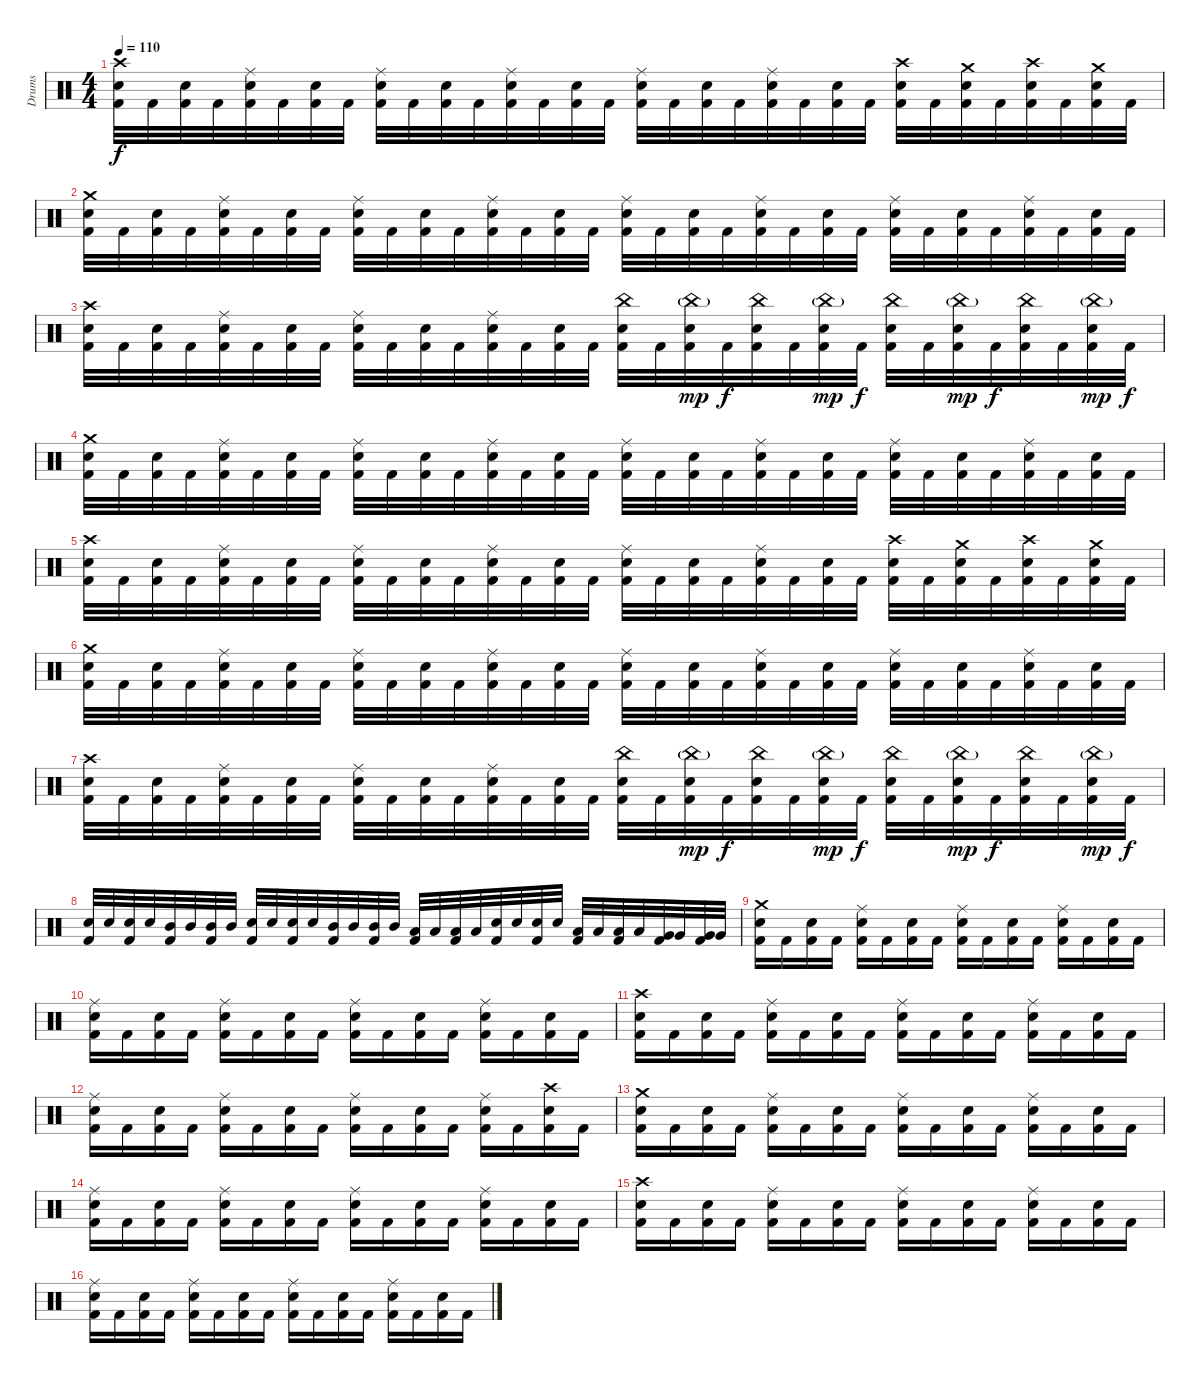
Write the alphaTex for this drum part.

\track ("Drums" "Drums") {instrument percussion}
\staff {score}
\articulation defaults
\ts (4 4)
\tempo 110
\clef neutral
\ks c
("Kick (hit) 2" "Snare (hit) 2" "Crash high (hit)").32{dy f} "Kick (hit) 2".32 ("Kick (hit) 2" "Snare (hit) 2").32 "Kick (hit) 2".32 ("Kick (hit) 2" "Snare (hit) 2" "Ride (middle)").32 "Kick (hit) 2".32 ("Kick (hit) 2" "Snare (hit) 2").32 "Kick (hit) 2".32 ("Kick (hit) 2" "Snare (hit) 2" "Ride (middle)").32 "Kick (hit) 2".32 ("Kick (hit) 2" "Snare (hit) 2").32 "Kick (hit) 2".32 ("Kick (hit) 2" "Snare (hit) 2" "Ride (middle)").32 "Kick (hit) 2".32 ("Kick (hit) 2" "Snare (hit) 2").32 "Kick (hit) 2".32 ("Kick (hit) 2" "Snare (hit) 2" "Ride (middle)").32 "Kick (hit) 2".32 ("Kick (hit) 2" "Snare (hit) 2").32 "Kick (hit) 2".32 ("Kick (hit) 2" "Snare (hit) 2" "Ride (middle)").32 "Kick (hit) 2".32 ("Kick (hit) 2" "Snare (hit) 2").32 "Kick (hit) 2".32 ("Kick (hit) 2" "Snare (hit) 2" "Crash high (hit)").32 "Kick (hit) 2".32 ("Kick (hit) 2" "Snare (hit) 2" "Crash medium (hit)").32 "Kick (hit) 2".32 ("Kick (hit) 2" "Snare (hit) 2" "Crash high (hit)").32 "Kick (hit) 2".32 ("Kick (hit) 2" "Snare (hit) 2" "Crash medium (hit)").32 "Kick (hit) 2".32 |
("Kick (hit) 2" "Snare (hit) 2" "Crash medium (hit)").32 "Kick (hit) 2".32 ("Kick (hit) 2" "Snare (hit) 2").32 "Kick (hit) 2".32 ("Kick (hit) 2" "Snare (hit) 2" "Ride (middle)").32 "Kick (hit) 2".32 ("Kick (hit) 2" "Snare (hit) 2").32 "Kick (hit) 2".32 ("Kick (hit) 2" "Snare (hit) 2" "Ride (middle)").32 "Kick (hit) 2".32 ("Kick (hit) 2" "Snare (hit) 2").32 "Kick (hit) 2".32 ("Kick (hit) 2" "Snare (hit) 2" "Ride (middle)").32 "Kick (hit) 2".32 ("Kick (hit) 2" "Snare (hit) 2").32 "Kick (hit) 2".32 ("Kick (hit) 2" "Snare (hit) 2" "Ride (middle)").32 "Kick (hit) 2".32 ("Kick (hit) 2" "Snare (hit) 2").32 "Kick (hit) 2".32 ("Kick (hit) 2" "Snare (hit) 2" "Ride (middle)").32 "Kick (hit) 2".32 ("Kick (hit) 2" "Snare (hit) 2").32 "Kick (hit) 2".32 ("Kick (hit) 2" "Snare (hit) 2" "Ride (middle)").32 "Kick (hit) 2".32 ("Kick (hit) 2" "Snare (hit) 2").32 "Kick (hit) 2".32 ("Kick (hit) 2" "Snare (hit) 2" "Ride (middle)").32 "Kick (hit) 2".32 ("Kick (hit) 2" "Snare (hit) 2").32 "Kick (hit) 2".32 |
("Kick (hit) 2" "Snare (hit) 2" "Crash high (hit)").32 "Kick (hit) 2".32 ("Kick (hit) 2" "Snare (hit) 2").32 "Kick (hit) 2".32 ("Kick (hit) 2" "Snare (hit) 2" "Ride (middle)").32 "Kick (hit) 2".32 ("Kick (hit) 2" "Snare (hit) 2").32 "Kick (hit) 2".32 ("Kick (hit) 2" "Snare (hit) 2" "Ride (middle)").32 "Kick (hit) 2".32 ("Kick (hit) 2" "Snare (hit) 2").32 "Kick (hit) 2".32 ("Kick (hit) 2" "Snare (hit) 2" "Ride (middle)").32 "Kick (hit) 2".32 ("Kick (hit) 2" "Snare (hit) 2").32 "Kick (hit) 2".32 ("Kick (hit) 2" "Snare (hit) 2" "China (hit)").32 "Kick (hit) 2".32 ("Kick (hit) 2" "Snare (hit) 2" "China (hit)"{g}).32{dy mp} "Kick (hit) 2".32{dy f} ("Kick (hit) 2" "Snare (hit) 2" "China (hit)").32 "Kick (hit) 2".32 ("Kick (hit) 2" "Snare (hit) 2" "China (hit)"{g}).32{dy mp} "Kick (hit) 2".32{dy f} ("Kick (hit) 2" "Snare (hit) 2" "China (hit)").32 "Kick (hit) 2".32 ("Kick (hit) 2" "Snare (hit) 2" "China (hit)"{g}).32{dy mp} "Kick (hit) 2".32{dy f} ("Kick (hit) 2" "Snare (hit) 2" "China (hit)").32 "Kick (hit) 2".32 ("Kick (hit) 2" "Snare (hit) 2" "China (hit)"{g}).32{dy mp} "Kick (hit) 2".32{dy f} |
("Kick (hit) 2" "Snare (hit) 2" "Crash medium (hit)").32 "Kick (hit) 2".32 ("Kick (hit) 2" "Snare (hit) 2").32 "Kick (hit) 2".32 ("Kick (hit) 2" "Snare (hit) 2" "Ride (middle)").32 "Kick (hit) 2".32 ("Kick (hit) 2" "Snare (hit) 2").32 "Kick (hit) 2".32 ("Kick (hit) 2" "Snare (hit) 2" "Ride (middle)").32 "Kick (hit) 2".32 ("Kick (hit) 2" "Snare (hit) 2").32 "Kick (hit) 2".32 ("Kick (hit) 2" "Snare (hit) 2" "Ride (middle)").32 "Kick (hit) 2".32 ("Kick (hit) 2" "Snare (hit) 2").32 "Kick (hit) 2".32 ("Kick (hit) 2" "Snare (hit) 2" "Ride (middle)").32 "Kick (hit) 2".32 ("Kick (hit) 2" "Snare (hit) 2").32 "Kick (hit) 2".32 ("Kick (hit) 2" "Snare (hit) 2" "Ride (middle)").32 "Kick (hit) 2".32 ("Kick (hit) 2" "Snare (hit) 2").32 "Kick (hit) 2".32 ("Kick (hit) 2" "Snare (hit) 2" "Ride (middle)").32 "Kick (hit) 2".32 ("Kick (hit) 2" "Snare (hit) 2").32 "Kick (hit) 2".32 ("Kick (hit) 2" "Snare (hit) 2" "Ride (middle)").32 "Kick (hit) 2".32 ("Kick (hit) 2" "Snare (hit) 2").32 "Kick (hit) 2".32 |
("Kick (hit) 2" "Snare (hit) 2" "Crash high (hit)").32 "Kick (hit) 2".32 ("Kick (hit) 2" "Snare (hit) 2").32 "Kick (hit) 2".32 ("Kick (hit) 2" "Snare (hit) 2" "Ride (middle)").32 "Kick (hit) 2".32 ("Kick (hit) 2" "Snare (hit) 2").32 "Kick (hit) 2".32 ("Kick (hit) 2" "Snare (hit) 2" "Ride (middle)").32 "Kick (hit) 2".32 ("Kick (hit) 2" "Snare (hit) 2").32 "Kick (hit) 2".32 ("Kick (hit) 2" "Snare (hit) 2" "Ride (middle)").32 "Kick (hit) 2".32 ("Kick (hit) 2" "Snare (hit) 2").32 "Kick (hit) 2".32 ("Kick (hit) 2" "Snare (hit) 2" "Ride (middle)").32 "Kick (hit) 2".32 ("Kick (hit) 2" "Snare (hit) 2").32 "Kick (hit) 2".32 ("Kick (hit) 2" "Snare (hit) 2" "Ride (middle)").32 "Kick (hit) 2".32 ("Kick (hit) 2" "Snare (hit) 2").32 "Kick (hit) 2".32 ("Kick (hit) 2" "Snare (hit) 2" "Crash high (hit)").32 "Kick (hit) 2".32 ("Kick (hit) 2" "Snare (hit) 2" "Crash medium (hit)").32 "Kick (hit) 2".32 ("Kick (hit) 2" "Snare (hit) 2" "Crash high (hit)").32 "Kick (hit) 2".32 ("Kick (hit) 2" "Snare (hit) 2" "Crash medium (hit)").32 "Kick (hit) 2".32 |
("Kick (hit) 2" "Snare (hit) 2" "Crash medium (hit)").32 "Kick (hit) 2".32 ("Kick (hit) 2" "Snare (hit) 2").32 "Kick (hit) 2".32 ("Kick (hit) 2" "Snare (hit) 2" "Ride (middle)").32 "Kick (hit) 2".32 ("Kick (hit) 2" "Snare (hit) 2").32 "Kick (hit) 2".32 ("Kick (hit) 2" "Snare (hit) 2" "Ride (middle)").32 "Kick (hit) 2".32 ("Kick (hit) 2" "Snare (hit) 2").32 "Kick (hit) 2".32 ("Kick (hit) 2" "Snare (hit) 2" "Ride (middle)").32 "Kick (hit) 2".32 ("Kick (hit) 2" "Snare (hit) 2").32 "Kick (hit) 2".32 ("Kick (hit) 2" "Snare (hit) 2" "Ride (middle)").32 "Kick (hit) 2".32 ("Kick (hit) 2" "Snare (hit) 2").32 "Kick (hit) 2".32 ("Kick (hit) 2" "Snare (hit) 2" "Ride (middle)").32 "Kick (hit) 2".32 ("Kick (hit) 2" "Snare (hit) 2").32 "Kick (hit) 2".32 ("Kick (hit) 2" "Snare (hit) 2" "Ride (middle)").32 "Kick (hit) 2".32 ("Kick (hit) 2" "Snare (hit) 2").32 "Kick (hit) 2".32 ("Kick (hit) 2" "Snare (hit) 2" "Ride (middle)").32 "Kick (hit) 2".32 ("Kick (hit) 2" "Snare (hit) 2").32 "Kick (hit) 2".32 |
("Kick (hit) 2" "Snare (hit) 2" "Crash high (hit)").32 "Kick (hit) 2".32 ("Kick (hit) 2" "Snare (hit) 2").32 "Kick (hit) 2".32 ("Kick (hit) 2" "Snare (hit) 2" "Ride (middle)").32 "Kick (hit) 2".32 ("Kick (hit) 2" "Snare (hit) 2").32 "Kick (hit) 2".32 ("Kick (hit) 2" "Snare (hit) 2" "Ride (middle)").32 "Kick (hit) 2".32 ("Kick (hit) 2" "Snare (hit) 2").32 "Kick (hit) 2".32 ("Kick (hit) 2" "Snare (hit) 2" "Ride (middle)").32 "Kick (hit) 2".32 ("Kick (hit) 2" "Snare (hit) 2").32 "Kick (hit) 2".32 ("Kick (hit) 2" "Snare (hit) 2" "China (hit)").32 "Kick (hit) 2".32 ("Kick (hit) 2" "Snare (hit) 2" "China (hit)"{g}).32{dy mp} "Kick (hit) 2".32{dy f} ("Kick (hit) 2" "Snare (hit) 2" "China (hit)").32 "Kick (hit) 2".32 ("Kick (hit) 2" "Snare (hit) 2" "China (hit)"{g}).32{dy mp} "Kick (hit) 2".32{dy f} ("Kick (hit) 2" "Snare (hit) 2" "China (hit)").32 "Kick (hit) 2".32 ("Kick (hit) 2" "Snare (hit) 2" "China (hit)"{g}).32{dy mp} "Kick (hit) 2".32{dy f} ("Kick (hit) 2" "Snare (hit) 2" "China (hit)").32 "Kick (hit) 2".32 ("Kick (hit) 2" "Snare (hit) 2" "China (hit)"{g}).32{dy mp} "Kick (hit) 2".32{dy f} |
("Kick (hit) 2" "Snare (hit) 2").32 "Snare (hit) 2".32 ("Kick (hit) 2" "Snare (hit) 2").32 "Snare (hit) 2".32 ("Kick (hit) 2" "Mid Tom (hit)").32 "Mid Tom (hit)".32 ("Kick (hit) 2" "Mid Tom (hit)").32 "Mid Tom (hit)".32 ("Kick (hit) 2" "Snare (hit) 2").32 "Snare (hit) 2".32 ("Kick (hit) 2" "Snare (hit) 2").32 "Snare (hit) 2".32 ("Kick (hit) 2" "Mid Tom (hit)").32 "Mid Tom (hit)".32 ("Kick (hit) 2" "Mid Tom (hit)").32 "Mid Tom (hit)".32 ("Kick (hit) 2" "Low Tom (hit)").32 "Low Tom (hit)".32 ("Kick (hit) 2" "Low Tom (hit)").32 "Low Tom (hit)".32 ("Kick (hit) 2" "Snare (hit) 2").32 "Snare (hit) 2".32 ("Kick (hit) 2" "Snare (hit) 2").32 "Snare (hit) 2".32 ("Kick (hit) 2" "Low Tom (hit)").32 "Low Tom (hit)".32 ("Kick (hit) 2" "Low Tom (hit)").32 "Low Tom (hit)".32 ("Kick (hit) 2" "Very Low Tom (hit)").32 "Very Low Tom (hit)".32 ("Kick (hit) 2" "Very Low Tom (hit)").32 "Very Low Tom (hit)".32 |
("Kick (hit) 2" "Snare (hit) 2" "Crash medium (hit)").16 "Kick (hit) 2".16 ("Kick (hit) 2" "Snare (hit) 2").16 "Kick (hit) 2".16 ("Kick (hit) 2" "Snare (hit) 2" "Ride (middle)").16 "Kick (hit) 2".16 ("Kick (hit) 2" "Snare (hit) 2").16 "Kick (hit) 2".16 ("Kick (hit) 2" "Snare (hit) 2" "Ride (middle)").16 "Kick (hit) 2".16 ("Kick (hit) 2" "Snare (hit) 2").16 "Kick (hit) 2".16 ("Kick (hit) 2" "Snare (hit) 2" "Ride (middle)").16 "Kick (hit) 2".16 ("Kick (hit) 2" "Snare (hit) 2").16 "Kick (hit) 2".16 |
("Kick (hit) 2" "Snare (hit) 2" "Ride (middle)").16 "Kick (hit) 2".16 ("Kick (hit) 2" "Snare (hit) 2").16 "Kick (hit) 2".16 ("Kick (hit) 2" "Snare (hit) 2" "Ride (middle)").16 "Kick (hit) 2".16 ("Kick (hit) 2" "Snare (hit) 2").16 "Kick (hit) 2".16 ("Kick (hit) 2" "Snare (hit) 2" "Ride (middle)").16 "Kick (hit) 2".16 ("Kick (hit) 2" "Snare (hit) 2").16 "Kick (hit) 2".16 ("Kick (hit) 2" "Snare (hit) 2" "Ride (middle)").16 "Kick (hit) 2".16 ("Kick (hit) 2" "Snare (hit) 2").16 "Kick (hit) 2".16 |
("Kick (hit) 2" "Snare (hit) 2" "Crash high (hit)").16 "Kick (hit) 2".16 ("Kick (hit) 2" "Snare (hit) 2").16 "Kick (hit) 2".16 ("Kick (hit) 2" "Snare (hit) 2" "Ride (middle)").16 "Kick (hit) 2".16 ("Kick (hit) 2" "Snare (hit) 2").16 "Kick (hit) 2".16 ("Kick (hit) 2" "Snare (hit) 2" "Ride (middle)").16 "Kick (hit) 2".16 ("Kick (hit) 2" "Snare (hit) 2").16 "Kick (hit) 2".16 ("Kick (hit) 2" "Snare (hit) 2" "Ride (middle)").16 "Kick (hit) 2".16 ("Kick (hit) 2" "Snare (hit) 2").16 "Kick (hit) 2".16 |
("Kick (hit) 2" "Snare (hit) 2" "Ride (middle)").16 "Kick (hit) 2".16 ("Kick (hit) 2" "Snare (hit) 2").16 "Kick (hit) 2".16 ("Kick (hit) 2" "Snare (hit) 2" "Ride (middle)").16 "Kick (hit) 2".16 ("Kick (hit) 2" "Snare (hit) 2").16 "Kick (hit) 2".16 ("Kick (hit) 2" "Snare (hit) 2" "Ride (middle)").16 "Kick (hit) 2".16 ("Kick (hit) 2" "Snare (hit) 2").16 "Kick (hit) 2".16 ("Kick (hit) 2" "Snare (hit) 2" "Ride (middle)").16 "Kick (hit) 2".16 ("Kick (hit) 2" "Snare (hit) 2" "Crash high (hit)").16 "Kick (hit) 2".16 |
("Kick (hit) 2" "Snare (hit) 2" "Crash medium (hit)").16 "Kick (hit) 2".16 ("Kick (hit) 2" "Snare (hit) 2").16 "Kick (hit) 2".16 ("Kick (hit) 2" "Snare (hit) 2" "Ride (middle)").16 "Kick (hit) 2".16 ("Kick (hit) 2" "Snare (hit) 2").16 "Kick (hit) 2".16 ("Kick (hit) 2" "Snare (hit) 2" "Ride (middle)").16 "Kick (hit) 2".16 ("Kick (hit) 2" "Snare (hit) 2").16 "Kick (hit) 2".16 ("Kick (hit) 2" "Snare (hit) 2" "Ride (middle)").16 "Kick (hit) 2".16 ("Kick (hit) 2" "Snare (hit) 2").16 "Kick (hit) 2".16 |
("Kick (hit) 2" "Snare (hit) 2" "Ride (middle)").16 "Kick (hit) 2".16 ("Kick (hit) 2" "Snare (hit) 2").16 "Kick (hit) 2".16 ("Kick (hit) 2" "Snare (hit) 2" "Ride (middle)").16 "Kick (hit) 2".16 ("Kick (hit) 2" "Snare (hit) 2").16 "Kick (hit) 2".16 ("Kick (hit) 2" "Snare (hit) 2" "Ride (middle)").16 "Kick (hit) 2".16 ("Kick (hit) 2" "Snare (hit) 2").16 "Kick (hit) 2".16 ("Kick (hit) 2" "Snare (hit) 2" "Ride (middle)").16 "Kick (hit) 2".16 ("Kick (hit) 2" "Snare (hit) 2").16 "Kick (hit) 2".16 |
("Kick (hit) 2" "Snare (hit) 2" "Crash high (hit)").16 "Kick (hit) 2".16 ("Kick (hit) 2" "Snare (hit) 2").16 "Kick (hit) 2".16 ("Kick (hit) 2" "Snare (hit) 2" "Ride (middle)").16 "Kick (hit) 2".16 ("Kick (hit) 2" "Snare (hit) 2").16 "Kick (hit) 2".16 ("Kick (hit) 2" "Snare (hit) 2" "Ride (middle)").16 "Kick (hit) 2".16 ("Kick (hit) 2" "Snare (hit) 2").16 "Kick (hit) 2".16 ("Kick (hit) 2" "Snare (hit) 2" "Ride (middle)").16 "Kick (hit) 2".16 ("Kick (hit) 2" "Snare (hit) 2").16 "Kick (hit) 2".16 |
("Kick (hit) 2" "Snare (hit) 2" "Ride (middle)").16 "Kick (hit) 2".16 ("Kick (hit) 2" "Snare (hit) 2").16 "Kick (hit) 2".16 ("Kick (hit) 2" "Snare (hit) 2" "Ride (middle)").16 "Kick (hit) 2".16 ("Kick (hit) 2" "Snare (hit) 2").16 "Kick (hit) 2".16 ("Kick (hit) 2" "Snare (hit) 2" "Ride (middle)").16 "Kick (hit) 2".16 ("Kick (hit) 2" "Snare (hit) 2").16 "Kick (hit) 2".16 ("Kick (hit) 2" "Snare (hit) 2" "Ride (middle)").16 "Kick (hit) 2".16 ("Kick (hit) 2" "Snare (hit) 2").16 "Kick (hit) 2".16
